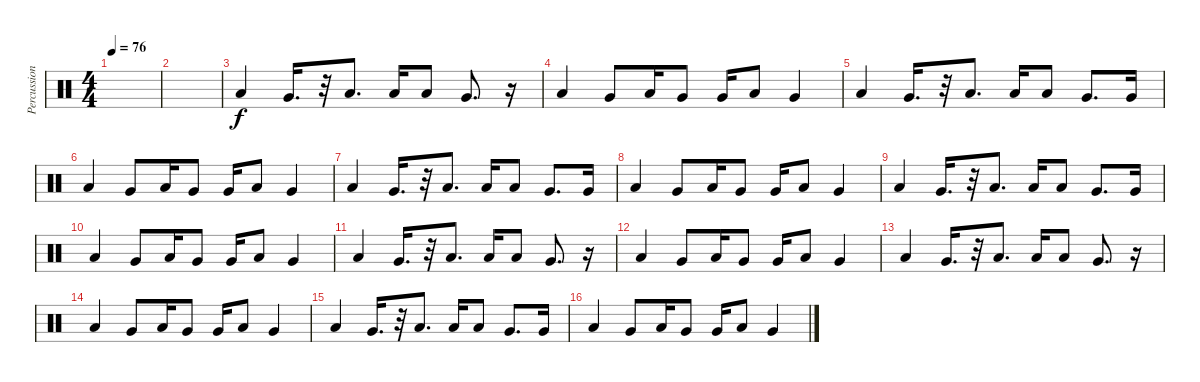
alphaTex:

\track ("Percussions" "Percussion") {instrument percussion}
\staff {score}
\articulation defaults
\ts (4 4)
\tempo 76
\clef neutral
\ks c
|
|
"Low Floor Tom (hit)".4 "Very Low Tom (hit)".16{d} r.32 "Low Floor Tom (hit)".8{d} "Low Floor Tom (hit)".16 "Low Floor Tom (hit)".8 "Very Low Tom (hit)".8{d} r.16 |
"Low Floor Tom (hit)".4 "Very Low Tom (hit)".8 "Low Floor Tom (hit)".16 "Very Low Tom (hit)".8 "Very Low Tom (hit)".16 "Low Floor Tom (hit)".8 "Very Low Tom (hit)".4 |
"Low Floor Tom (hit)".4 "Very Low Tom (hit)".16{d} r.32 "Low Floor Tom (hit)".8{d} "Low Floor Tom (hit)".16 "Low Floor Tom (hit)".8 "Very Low Tom (hit)".8{d} "Very Low Tom (hit)".16 |
"Low Floor Tom (hit)".4 "Very Low Tom (hit)".8 "Low Floor Tom (hit)".16 "Very Low Tom (hit)".8 "Very Low Tom (hit)".16 "Low Floor Tom (hit)".8 "Very Low Tom (hit)".4 |
"Low Floor Tom (hit)".4 "Very Low Tom (hit)".16{d} r.32 "Low Floor Tom (hit)".8{d} "Low Floor Tom (hit)".16 "Low Floor Tom (hit)".8 "Very Low Tom (hit)".8{d} "Very Low Tom (hit)".16 |
"Low Floor Tom (hit)".4 "Very Low Tom (hit)".8 "Low Floor Tom (hit)".16 "Very Low Tom (hit)".8 "Very Low Tom (hit)".16 "Low Floor Tom (hit)".8 "Very Low Tom (hit)".4 |
"Low Floor Tom (hit)".4 "Very Low Tom (hit)".16{d} r.32 "Low Floor Tom (hit)".8{d} "Low Floor Tom (hit)".16 "Low Floor Tom (hit)".8 "Very Low Tom (hit)".8{d} "Very Low Tom (hit)".16 |
"Low Floor Tom (hit)".4 "Very Low Tom (hit)".8 "Low Floor Tom (hit)".16 "Very Low Tom (hit)".8 "Very Low Tom (hit)".16 "Low Floor Tom (hit)".8 "Very Low Tom (hit)".4 |
"Low Floor Tom (hit)".4 "Very Low Tom (hit)".16{d} r.32 "Low Floor Tom (hit)".8{d} "Low Floor Tom (hit)".16 "Low Floor Tom (hit)".8 "Very Low Tom (hit)".8{d} r.16 |
"Low Floor Tom (hit)".4 "Very Low Tom (hit)".8 "Low Floor Tom (hit)".16 "Very Low Tom (hit)".8 "Very Low Tom (hit)".16 "Low Floor Tom (hit)".8 "Very Low Tom (hit)".4 |
"Low Floor Tom (hit)".4 "Very Low Tom (hit)".16{d} r.32 "Low Floor Tom (hit)".8{d} "Low Floor Tom (hit)".16 "Low Floor Tom (hit)".8 "Very Low Tom (hit)".8{d} r.16 |
"Low Floor Tom (hit)".4 "Very Low Tom (hit)".8 "Low Floor Tom (hit)".16 "Very Low Tom (hit)".8 "Very Low Tom (hit)".16 "Low Floor Tom (hit)".8 "Very Low Tom (hit)".4 |
"Low Floor Tom (hit)".4 "Very Low Tom (hit)".16{d} r.32 "Low Floor Tom (hit)".8{d} "Low Floor Tom (hit)".16 "Low Floor Tom (hit)".8 "Very Low Tom (hit)".8{d} "Very Low Tom (hit)".16 |
"Low Floor Tom (hit)".4 "Very Low Tom (hit)".8 "Low Floor Tom (hit)".16 "Very Low Tom (hit)".8 "Very Low Tom (hit)".16 "Low Floor Tom (hit)".8 "Very Low Tom (hit)".4
